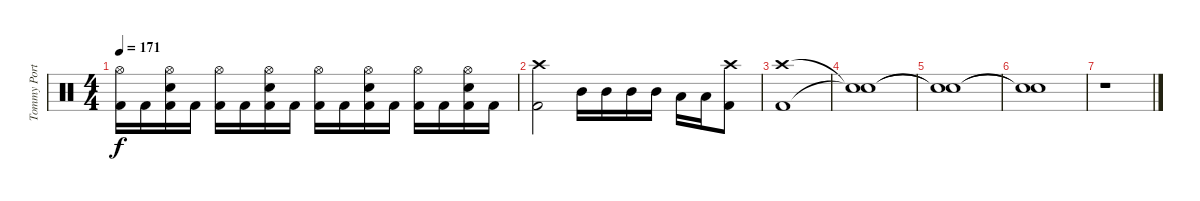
\track ("Tommy Portimo" "Tommy Port") {instrument percussion}
\staff {score}
\articulation defaults
\ts (4 4)
\tempo 171
\clef neutral
\ks c
("Hi-Hat (open)" "Kick (hit) 2").16{dy f} "Kick (hit) 2".16 ("Hi-Hat (open)" "Snare (hit) 2" "Kick (hit) 2").16 "Kick (hit) 2".16 ("Hi-Hat (open)" "Kick (hit) 2").16 "Kick (hit) 2".16 ("Hi-Hat (open)" "Snare (hit) 2" "Kick (hit) 2").16 "Kick (hit) 2".16 ("Hi-Hat (open)" "Kick (hit) 2").16 "Kick (hit) 2".16 ("Hi-Hat (open)" "Snare (hit) 2" "Kick (hit) 2").16 "Kick (hit) 2".16 ("Hi-Hat (open)" "Kick (hit) 2").16 "Kick (hit) 2".16 ("Hi-Hat (open)" "Snare (hit) 2" "Kick (hit) 2").16 "Kick (hit) 2".16 |
("Crash high (hit)" "Kick (hit) 2").2 "Mid Tom (hit)".16 "Mid Tom (hit)".16 "Mid Tom (hit)".16 "Mid Tom (hit)".16 "Low Tom (hit)".16 "Low Tom (hit)".16 ("Crash high (hit)" "Kick (hit) 2").8 |
("Crash high (hit)" "Kick (hit) 2").1{volume 0} |
("Snare (hit)"{t} "Snare (hit)"{t}).1 |
("Snare (hit)"{t} "Snare (hit)"{t}).1 |
("Snare (hit)"{t} "Snare (hit)"{t}).1 |
r.1
